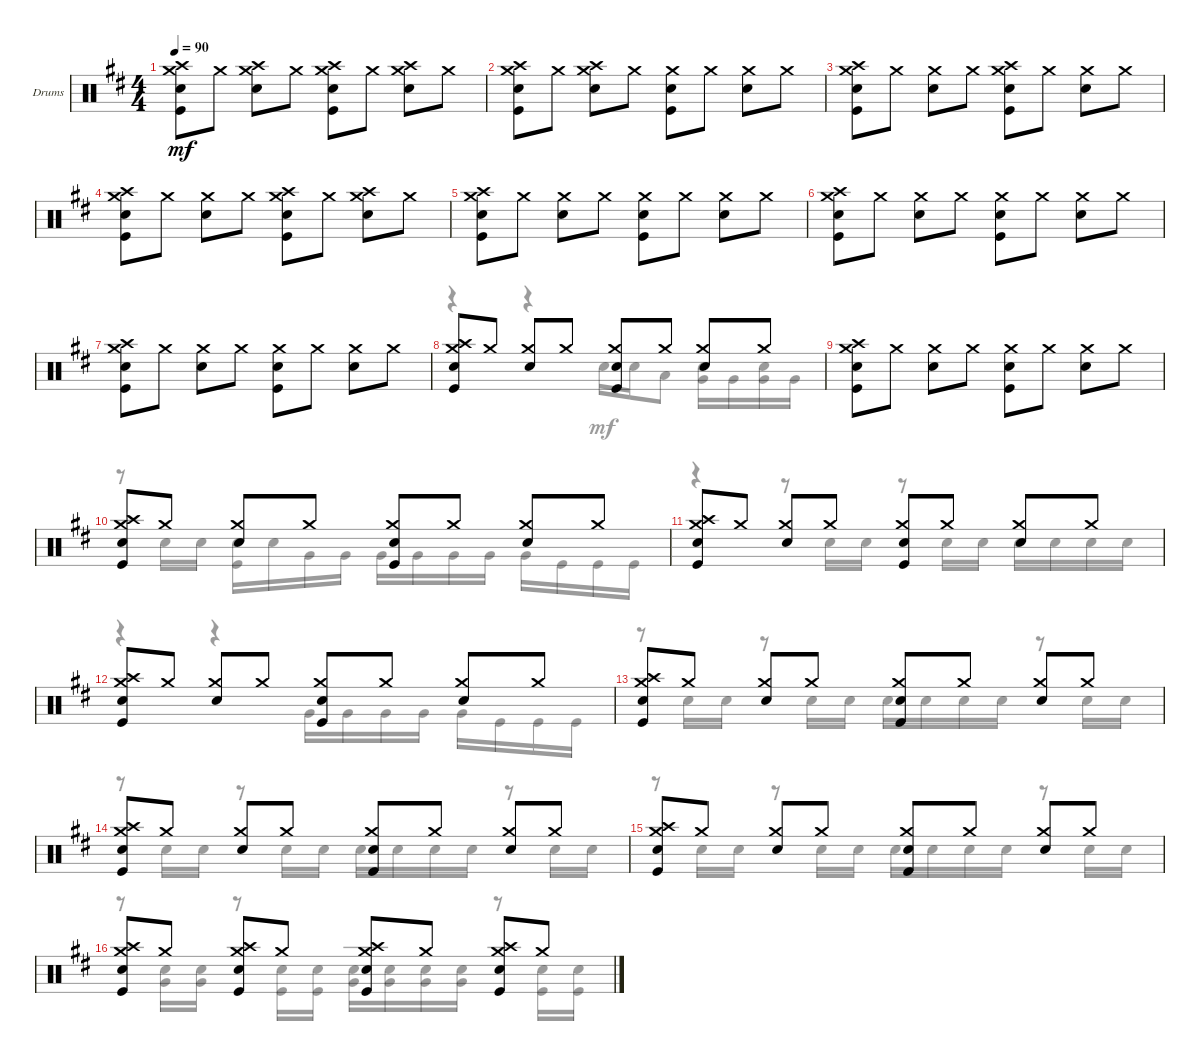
\defaultSystemsLayout 4
\bracketExtendMode groupsimilarinstruments
\firstSystemTrackNameOrientation horizontal
\otherSystemsTrackNameOrientation horizontal
\track ("Drumkit" "Drums") {instrument percussion}
\staff {score}
\articulation defaults
\voice
\ts (4 4)
\tempo 90
\clef neutral
\ks bminor
("Kick (hit)" "Snare (hit) 2" "Crash medium (hit)" "Crash high (hit)").8{dy mf} "Crash medium (hit)".8 ("Snare (hit) 2" "Crash medium (hit)" "Crash high (hit)").8 "Crash medium (hit)".8 ("Kick (hit)" "Snare (hit) 2" "Crash medium (hit)" "Crash high (hit)").8 "Crash medium (hit)".8 ("Snare (hit) 2" "Crash medium (hit)" "Crash high (hit)").8 "Crash medium (hit)".8 |
("Kick (hit)" "Snare (hit) 2" "Crash medium (hit)" "Crash high (hit)").8 "Crash medium (hit)".8 ("Snare (hit) 2" "Crash medium (hit)" "Crash high (hit)").8 "Crash medium (hit)".8 ("Kick (hit)" "Snare (hit) 2" "Crash medium (hit)").8 "Crash medium (hit)".8 ("Snare (hit) 2" "Crash medium (hit)").8 "Crash medium (hit)".8 |
("Kick (hit)" "Snare (hit) 2" "Crash medium (hit)" "Crash high (hit)").8 "Crash medium (hit)".8 ("Snare (hit) 2" "Crash medium (hit)").8 "Crash medium (hit)".8 ("Kick (hit)" "Snare (hit) 2" "Crash medium (hit)" "Crash high (hit)").8 "Crash medium (hit)".8 ("Snare (hit) 2" "Crash medium (hit)").8 "Crash medium (hit)".8 |
("Kick (hit)" "Snare (hit) 2" "Crash medium (hit)" "Crash high (hit)").8 "Crash medium (hit)".8 ("Snare (hit) 2" "Crash medium (hit)").8 "Crash medium (hit)".8 ("Kick (hit)" "Snare (hit) 2" "Crash medium (hit)" "Crash high (hit)").8 "Crash medium (hit)".8 ("Snare (hit) 2" "Crash medium (hit)" "Crash high (hit)").8 "Crash medium (hit)".8 |
("Kick (hit)" "Snare (hit) 2" "Crash medium (hit)" "Crash high (hit)").8 "Crash medium (hit)".8 ("Snare (hit) 2" "Crash medium (hit)").8 "Crash medium (hit)".8 ("Kick (hit)" "Snare (hit) 2" "Crash medium (hit)").8 "Crash medium (hit)".8 ("Snare (hit) 2" "Crash medium (hit)").8 "Crash medium (hit)".8 |
("Kick (hit)" "Snare (hit) 2" "Crash medium (hit)" "Crash high (hit)").8 "Crash medium (hit)".8 ("Snare (hit) 2" "Crash medium (hit)").8 "Crash medium (hit)".8 ("Kick (hit)" "Snare (hit) 2" "Crash medium (hit)").8 "Crash medium (hit)".8 ("Snare (hit) 2" "Crash medium (hit)").8 "Crash medium (hit)".8 |
("Kick (hit)" "Snare (hit) 2" "Crash medium (hit)" "Crash high (hit)").8 "Crash medium (hit)".8 ("Snare (hit) 2" "Crash medium (hit)").8 "Crash medium (hit)".8 ("Kick (hit)" "Snare (hit) 2" "Crash medium (hit)").8 "Crash medium (hit)".8 ("Snare (hit) 2" "Crash medium (hit)").8 "Crash medium (hit)".8 |
("Kick (hit)" "Snare (hit) 2" "Crash medium (hit)" "Crash high (hit)").8 "Crash medium (hit)".8 ("Snare (hit) 2" "Crash medium (hit)").8 "Crash medium (hit)".8 ("Kick (hit)" "Snare (hit) 2" "Crash medium (hit)").8 "Crash medium (hit)".8 ("Snare (hit) 2" "Crash medium (hit)").8 "Crash medium (hit)".8 |
("Kick (hit)" "Snare (hit) 2" "Crash medium (hit)" "Crash high (hit)").8 "Crash medium (hit)".8 ("Snare (hit) 2" "Crash medium (hit)").8 "Crash medium (hit)".8 ("Kick (hit)" "Snare (hit) 2" "Crash medium (hit)").8 "Crash medium (hit)".8 ("Snare (hit) 2" "Crash medium (hit)").8 "Crash medium (hit)".8 |
("Kick (hit)" "Snare (hit) 2" "Crash medium (hit)" "Crash high (hit)").8 "Crash medium (hit)".8 ("Snare (hit) 2" "Crash medium (hit)").8 "Crash medium (hit)".8 ("Kick (hit)" "Snare (hit) 2" "Crash medium (hit)").8 "Crash medium (hit)".8 ("Snare (hit) 2" "Crash medium (hit)").8 "Crash medium (hit)".8 |
("Kick (hit)" "Snare (hit) 2" "Crash medium (hit)" "Crash high (hit)").8 "Crash medium (hit)".8 ("Snare (hit) 2" "Crash medium (hit)").8 "Crash medium (hit)".8 ("Kick (hit)" "Snare (hit) 2" "Crash medium (hit)").8 "Crash medium (hit)".8 ("Snare (hit) 2" "Crash medium (hit)").8 "Crash medium (hit)".8 |
("Kick (hit)" "Snare (hit) 2" "Crash medium (hit)" "Crash high (hit)").8 "Crash medium (hit)".8 ("Snare (hit) 2" "Crash medium (hit)").8 "Crash medium (hit)".8 ("Kick (hit)" "Snare (hit) 2" "Crash medium (hit)").8 "Crash medium (hit)".8 ("Snare (hit) 2" "Crash medium (hit)").8 "Crash medium (hit)".8 |
("Kick (hit)" "Snare (hit) 2" "Crash medium (hit)" "Crash high (hit)").8 "Crash medium (hit)".8 ("Snare (hit) 2" "Crash medium (hit)").8 "Crash medium (hit)".8 ("Kick (hit)" "Snare (hit) 2" "Crash medium (hit)").8 "Crash medium (hit)".8 ("Snare (hit) 2" "Crash medium (hit)").8 "Crash medium (hit)".8 |
("Kick (hit)" "Snare (hit) 2" "Crash medium (hit)" "Crash high (hit)").8 "Crash medium (hit)".8 ("Snare (hit) 2" "Crash medium (hit)").8 "Crash medium (hit)".8 ("Kick (hit)" "Snare (hit) 2" "Crash medium (hit)").8 "Crash medium (hit)".8 ("Snare (hit) 2" "Crash medium (hit)").8 "Crash medium (hit)".8 |
("Kick (hit)" "Snare (hit) 2" "Crash medium (hit)" "Crash high (hit)").8 "Crash medium (hit)".8 ("Snare (hit) 2" "Crash medium (hit)").8 "Crash medium (hit)".8 ("Kick (hit)" "Snare (hit) 2" "Crash medium (hit)").8 "Crash medium (hit)".8 ("Snare (hit) 2" "Crash medium (hit)").8 "Crash medium (hit)".8 |
("Kick (hit)" "Snare (hit) 2" "Crash medium (hit)" "Crash high (hit)").8 "Crash medium (hit)".8 ("Snare (hit) 2" "Crash medium (hit)" "Kick (hit)" "Crash high (hit)").8 "Crash medium (hit)".8 ("Kick (hit)" "Snare (hit) 2" "Crash medium (hit)" "Crash high (hit)").8 "Crash medium (hit)".8 ("Snare (hit) 2" "Crash medium (hit)" "Kick (hit)" "Crash high (hit)").8 "Crash medium (hit)".8
\voice
\clef neutral
\ottava regular
\simile none
\ks bminor
|
|
|
|
|
|
|
r.4 r.4 "Snare (hit) 2".16 "Snare (hit) 2".16 "Low Tom (hit)".8 ("Snare (hit) 2" "Very Low Tom (hit)").16 "Very Low Tom (hit)".16 ("Snare (hit) 2" "Very Low Tom (hit)").16 "Very Low Tom (hit)".16 |
|
r.8 "Snare (hit) 2".16 "Snare (hit) 2".16 ("Snare (hit) 2" "Kick (hit)").16 "Snare (hit) 2".16 "Very Low Tom (hit)".16 "Very Low Tom (hit)".16 "Very Low Tom (hit)".16 "Very Low Tom (hit)".16 "Very Low Tom (hit)".16 "Very Low Tom (hit)".16 "Very Low Tom (hit)".16 "Kick (hit)".16 "Kick (hit)".16 "Kick (hit)".16 |
r.4 r.8 "Snare (hit) 2".16 "Snare (hit) 2".16 r.8 "Snare (hit) 2".16 "Snare (hit) 2".16 "Snare (hit) 2".16 "Snare (hit) 2".16 "Snare (hit) 2".16 "Snare (hit) 2".16 |
r.4 r.4 "Very Low Tom (hit)".16 "Very Low Tom (hit)".16 "Very Low Tom (hit)".16 "Very Low Tom (hit)".16 "Very Low Tom (hit)".16 "Kick (hit)".16 "Kick (hit)".16 "Kick (hit)".16 |
r.8 "Snare (hit) 2".16 "Snare (hit) 2".16 r.8 "Snare (hit) 2".16 "Snare (hit) 2".16 "Snare (hit) 2".16 "Snare (hit) 2".16 "Snare (hit) 2".16 "Snare (hit) 2".16 r.8 "Snare (hit) 2".16 "Snare (hit) 2".16 |
r.8 "Snare (hit) 2".16 "Snare (hit) 2".16 r.8 "Snare (hit) 2".16 "Snare (hit) 2".16 "Snare (hit) 2".16 "Snare (hit) 2".16 "Snare (hit) 2".16 "Snare (hit) 2".16 r.8 "Snare (hit) 2".16 "Snare (hit) 2".16 |
r.8 "Snare (hit) 2".16 "Snare (hit) 2".16 r.8 "Snare (hit) 2".16 "Snare (hit) 2".16 "Snare (hit) 2".16 "Snare (hit) 2".16 "Snare (hit) 2".16 "Snare (hit) 2".16 r.8 "Snare (hit) 2".16 "Snare (hit) 2".16 |
r.8 ("Snare (hit) 2" "Very Low Tom (hit)").16 ("Snare (hit) 2" "Very Low Tom (hit)").16 r.8 ("Snare (hit) 2" "Kick (hit)").16 ("Snare (hit) 2" "Kick (hit)").16 ("Snare (hit) 2" "Very Low Tom (hit)").16 ("Snare (hit) 2" "Very Low Tom (hit)").16 ("Snare (hit) 2" "Very Low Tom (hit)").16 ("Snare (hit) 2" "Very Low Tom (hit)").16 r.8 ("Snare (hit) 2" "Kick (hit)").16 ("Snare (hit) 2" "Kick (hit)").16
